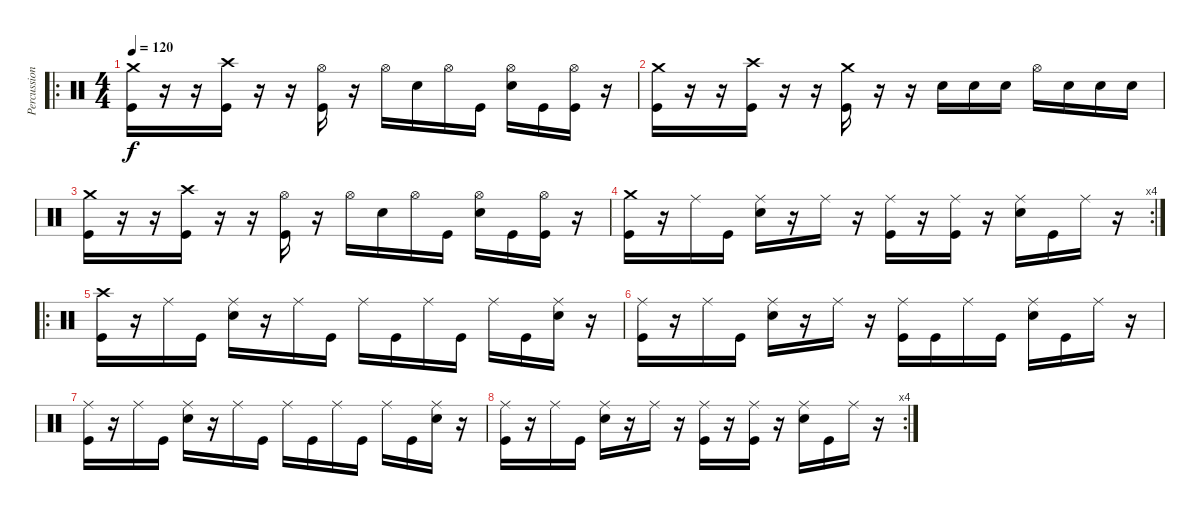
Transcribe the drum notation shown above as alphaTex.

\track ("Percussion" "Percussion") {instrument percussion}
\staff {score}
\articulation defaults
\ro
\ts (4 4)
\tempo 120
\clef neutral
\ks c
("Crash medium (hit)" "Kick (hit)").16{dy f} r.16 r.16 ("Crash high (hit)" "Kick (hit)").16 r.16 r.16 ("Hi-Hat (open)" "Kick (hit)").16 r.16 "Hi-Hat (open)".16 "Electric Snare (hit)".16 "Hi-Hat (open)".16 "Kick (hit)".16 ("Hi-Hat (open)" "Electric Snare (hit)").16 "Kick (hit)".16 ("Hi-Hat (open)" "Kick (hit)").16 r.16 |
("Crash medium (hit)" "Kick (hit)").16 r.16 r.16 ("Crash high (hit)" "Kick (hit)").16 r.16 r.16 ("Crash medium (hit)" "Kick (hit)").16 r.16 r.16 "Electric Snare (hit)".16 "Electric Snare (hit)".16 "Electric Snare (hit)".16 "Hi-Hat (open)".16 "Electric Snare (hit)".16 "Electric Snare (hit)".16 "Electric Snare (hit)".16 |
("Crash medium (hit)" "Kick (hit)").16 r.16 r.16 ("Crash high (hit)" "Kick (hit)").16 r.16 r.16 ("Hi-Hat (open)" "Kick (hit)").16 r.16 "Hi-Hat (open)".16 "Electric Snare (hit)".16 "Hi-Hat (open)".16 "Kick (hit)".16 ("Hi-Hat (open)" "Electric Snare (hit)").16 "Kick (hit)".16 ("Hi-Hat (open)" "Kick (hit)").16 r.16 |
\rc 4
("Crash medium (hit)" "Kick (hit)").16 r.16 "Ride (middle)".16 "Kick (hit)".16 ("Ride (middle)" "Electric Snare (hit)").16 r.16 "Ride (middle)".16 r.16 ("Ride (middle)" "Kick (hit)").16 r.16 ("Ride (middle)" "Kick (hit)").16 r.16 ("Ride (middle)" "Electric Snare (hit)").16 "Kick (hit)".16 "Ride (middle)".16 r.16 |
\ro
("Crash high (hit)" "Kick (hit)").16 r.16 "Ride (middle)".16 "Kick (hit)".16 ("Ride (middle)" "Electric Snare (hit)").16 r.16 "Ride (middle)".16 "Kick (hit)".16 "Ride (middle)".16 "Kick (hit)".16 "Ride (middle)".16 "Kick (hit)".16 "Ride (middle)".16 "Kick (hit)".16 ("Ride (middle)" "Electric Snare (hit)").16 r.16 |
("Ride (middle)" "Kick (hit)").16 r.16 "Ride (middle)".16 "Kick (hit)".16 ("Ride (middle)" "Electric Snare (hit)").16 r.16 "Ride (middle)".16 r.16 ("Ride (middle)" "Kick (hit)").16 "Kick (hit)".16 "Ride (middle)".16 "Kick (hit)".16 ("Ride (middle)" "Electric Snare (hit)").16 "Kick (hit)".16 "Ride (middle)".16 r.16 |
("Ride (middle)" "Kick (hit)").16 r.16 "Ride (middle)".16 "Kick (hit)".16 ("Ride (middle)" "Electric Snare (hit)").16 r.16 "Ride (middle)".16 "Kick (hit)".16 "Ride (middle)".16 "Kick (hit)".16 "Ride (middle)".16 "Kick (hit)".16 "Ride (middle)".16 "Kick (hit)".16 ("Ride (middle)" "Electric Snare (hit)").16 r.16 |
\rc 4
("Ride (middle)" "Kick (hit)").16 r.16 "Ride (middle)".16 "Kick (hit)".16 ("Ride (middle)" "Electric Snare (hit)").16 r.16 "Ride (middle)".16 r.16 ("Ride (middle)" "Kick (hit)").16 r.16 ("Ride (middle)" "Kick (hit)").16 r.16 ("Ride (middle)" "Electric Snare (hit)").16 "Kick (hit)".16 "Ride (middle)".16 r.16
